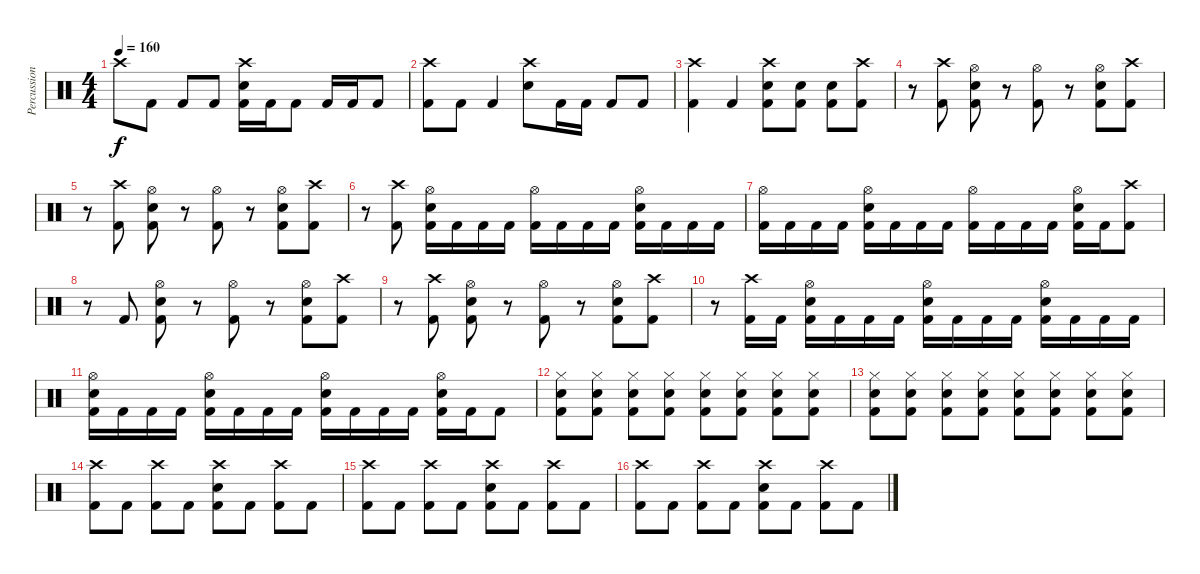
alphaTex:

\track ("Percussion" "Percussion") {instrument percussion}
\staff {score}
\articulation defaults
\ts (4 4)
\tempo 160
\clef neutral
\ks c "Crash high (hit)".8{dy f} "Kick (hit) 2".8 "Kick (hit) 2".8 "Kick (hit) 2".8
("Crash high (hit)" "Electric Snare (hit)" "Kick (hit) 2").16 "Kick (hit) 2".16 "Kick (hit) 2".8 "Kick (hit) 2".16 "Kick (hit) 2".16 "Kick (hit) 2".8 |
("Crash high (hit)" "Kick (hit) 2").8 "Kick (hit) 2".8 "Kick (hit) 2".4 ("Crash high (hit)" "Electric Snare (hit)").8 "Kick (hit) 2".16 "Kick (hit) 2".16 "Kick (hit) 2".8 "Kick (hit) 2".8 |
("Crash high (hit)" "Kick (hit) 2").4 "Kick (hit) 2".4 ("Crash high (hit)" "Electric Snare (hit)" "Kick (hit) 2").8 ("Electric Snare (hit)" "Kick (hit) 2").8 ("Electric Snare (hit)" "Kick (hit) 2").8 ("Crash high (hit)" "Kick (hit) 2").8 |
r.8 ("Crash high (hit)" "Kick (hit) 2").8 ("Hi-Hat (open)" "Electric Snare (hit)" "Kick (hit) 2").8 r.8 ("Hi-Hat (open)" "Kick (hit) 2").8 r.8 ("Hi-Hat (open)" "Electric Snare (hit)" "Kick (hit) 2").8 ("Crash high (hit)" "Kick (hit) 2").8 |
r.8 ("Crash high (hit)" "Kick (hit) 2").8 ("Hi-Hat (open)" "Electric Snare (hit)" "Kick (hit) 2").8 r.8 ("Hi-Hat (open)" "Kick (hit) 2").8 r.8 ("Hi-Hat (open)" "Electric Snare (hit)" "Kick (hit) 2").8 ("Crash high (hit)" "Kick (hit) 2").8 |
r.8 ("Crash high (hit)" "Kick (hit) 2").8 ("Hi-Hat (open)" "Electric Snare (hit)" "Kick (hit) 2").16 "Kick (hit) 2".16 "Kick (hit) 2".16 "Kick (hit) 2".16 ("Hi-Hat (open)" "Kick (hit) 2").16 "Kick (hit) 2".16 "Kick (hit) 2".16 "Kick (hit) 2".16 ("Hi-Hat (open)" "Electric Snare (hit)" "Kick (hit) 2").16 "Kick (hit) 2".16 "Kick (hit) 2".16 "Kick (hit) 2".16 |
("Hi-Hat (open)" "Kick (hit) 2").16 "Kick (hit) 2".16 "Kick (hit) 2".16 "Kick (hit) 2".16 ("Hi-Hat (open)" "Electric Snare (hit)" "Kick (hit) 2").16 "Kick (hit) 2".16 "Kick (hit) 2".16 "Kick (hit) 2".16 ("Hi-Hat (open)" "Kick (hit) 2").16 "Kick (hit) 2".16 "Kick (hit) 2".16 "Kick (hit) 2".16 ("Hi-Hat (open)" "Electric Snare (hit)" "Kick (hit) 2").16 "Kick (hit) 2".16 ("Crash high (hit)" "Kick (hit) 2").8 |
r.8 "Kick (hit) 2".8 ("Hi-Hat (open)" "Electric Snare (hit)" "Kick (hit) 2").8 r.8 ("Hi-Hat (open)" "Kick (hit) 2").8 r.8 ("Hi-Hat (open)" "Electric Snare (hit)" "Kick (hit) 2").8 ("Crash high (hit)" "Kick (hit) 2").8 |
r.8 ("Crash high (hit)" "Kick (hit) 2").8 ("Hi-Hat (open)" "Electric Snare (hit)" "Kick (hit) 2").8 r.8 ("Hi-Hat (open)" "Kick (hit) 2").8 r.8 ("Hi-Hat (open)" "Electric Snare (hit)" "Kick (hit) 2").8 ("Crash high (hit)" "Kick (hit) 2").8 |
r.8 ("Crash high (hit)" "Kick (hit) 2").16 "Kick (hit) 2".16 ("Hi-Hat (open)" "Electric Snare (hit)" "Kick (hit) 2").16 "Kick (hit) 2".16 "Kick (hit) 2".16 "Kick (hit) 2".16 ("Hi-Hat (open)" "Electric Snare (hit)" "Kick (hit) 2").16 "Kick (hit) 2".16 "Kick (hit) 2".16 "Kick (hit) 2".16 ("Hi-Hat (open)" "Electric Snare (hit)" "Kick (hit) 2").16 "Kick (hit) 2".16 "Kick (hit) 2".16 "Kick (hit) 2".16 |
("Hi-Hat (open)" "Electric Snare (hit)" "Kick (hit) 2").16 "Kick (hit) 2".16 "Kick (hit) 2".16 "Kick (hit) 2".16 ("Hi-Hat (open)" "Electric Snare (hit)" "Kick (hit) 2").16 "Kick (hit) 2".16 "Kick (hit) 2".16 "Kick (hit) 2".16 ("Hi-Hat (open)" "Electric Snare (hit)" "Kick (hit) 2").16 "Kick (hit) 2".16 "Kick (hit) 2".16 "Kick (hit) 2".16 ("Hi-Hat (open)" "Electric Snare (hit)" "Kick (hit) 2").16 "Kick (hit) 2".16 "Kick (hit) 2".8 |
("Hi-Hat (closed)" "Electric Snare (hit)" "Kick (hit) 2").8 ("Hi-Hat (closed)" "Electric Snare (hit)" "Kick (hit) 2").8 ("Hi-Hat (closed)" "Electric Snare (hit)" "Kick (hit) 2").8 ("Hi-Hat (closed)" "Electric Snare (hit)" "Kick (hit) 2").8 ("Hi-Hat (closed)" "Electric Snare (hit)" "Kick (hit) 2").8 ("Hi-Hat (closed)" "Electric Snare (hit)" "Kick (hit) 2").8 ("Hi-Hat (closed)" "Electric Snare (hit)" "Kick (hit) 2").8 ("Hi-Hat (closed)" "Electric Snare (hit)" "Kick (hit) 2").8 |
("Hi-Hat (closed)" "Electric Snare (hit)" "Kick (hit) 2").8 ("Hi-Hat (closed)" "Electric Snare (hit)" "Kick (hit) 2").8 ("Hi-Hat (closed)" "Electric Snare (hit)" "Kick (hit) 2").8 ("Hi-Hat (closed)" "Electric Snare (hit)" "Kick (hit) 2").8 ("Hi-Hat (closed)" "Electric Snare (hit)" "Kick (hit) 2").8 ("Hi-Hat (closed)" "Electric Snare (hit)" "Kick (hit) 2").8 ("Hi-Hat (closed)" "Electric Snare (hit)" "Kick (hit) 2").8 ("Hi-Hat (closed)" "Electric Snare (hit)" "Kick (hit) 2").8 |
("Crash high (hit)" "Kick (hit) 2").8 "Kick (hit) 2".8 ("Crash high (hit)" "Kick (hit) 2").8 "Kick (hit) 2".8 ("Crash high (hit)" "Electric Snare (hit)" "Kick (hit) 2").8 "Kick (hit) 2".8 ("Crash high (hit)" "Kick (hit) 2").8 "Kick (hit) 2".8 |
("Crash high (hit)" "Kick (hit) 2").8 "Kick (hit) 2".8 ("Crash high (hit)" "Kick (hit) 2").8 "Kick (hit) 2".8 ("Crash high (hit)" "Electric Snare (hit)" "Kick (hit) 2").8 "Kick (hit) 2".8 ("Crash high (hit)" "Kick (hit) 2").8 "Kick (hit) 2".8 |
("Crash high (hit)" "Kick (hit) 2").8 "Kick (hit) 2".8 ("Crash high (hit)" "Kick (hit) 2").8 "Kick (hit) 2".8 ("Crash high (hit)" "Electric Snare (hit)" "Kick (hit) 2").8 "Kick (hit) 2".8 ("Crash high (hit)" "Kick (hit) 2").8 "Kick (hit) 2".8
